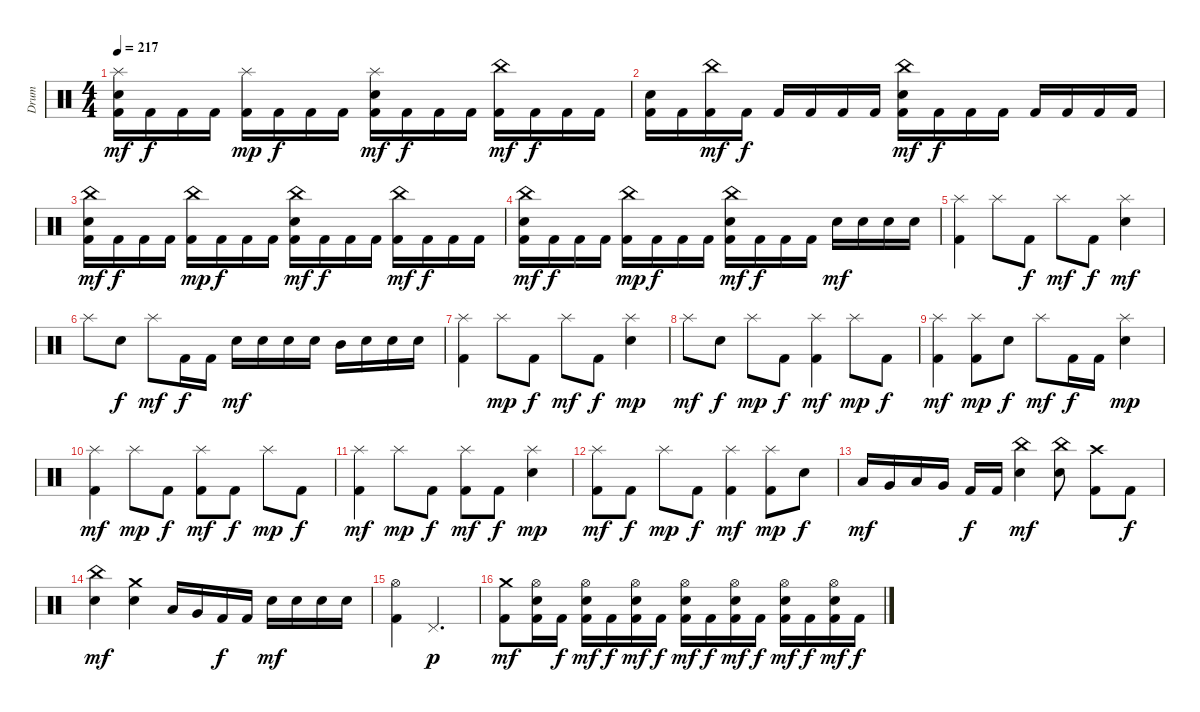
\track ("Drum" "Drum") {instrument percussion}
\staff {score}
\articulation defaults
\ts (4 4)
\tempo 217
\clef neutral
\ks c
("Splash (hit)" "Electric Snare (hit)" "Kick (hit) 2").16{dy mf} "Kick (hit) 2".16{dy f} "Kick (hit) 2".16 "Kick (hit) 2".16 ("Splash (hit)" "Kick (hit) 2").16{dy mp} "Kick (hit) 2".16{dy f} "Kick (hit) 2".16 "Kick (hit) 2".16 ("Splash (hit)" "Electric Snare (hit)" "Kick (hit) 2").16{dy mf} "Kick (hit) 2".16{dy f} "Kick (hit) 2".16 "Kick (hit) 2".16 ("China (hit)" "Kick (hit) 2").16{dy mf} "Kick (hit) 2".16{dy f} "Kick (hit) 2".16 "Kick (hit) 2".16 |
("Electric Snare (hit)" "Kick (hit) 2").16 "Kick (hit) 2".16 ("China (hit)" "Kick (hit) 2").16{dy mf} "Kick (hit) 2".16{dy f} "Kick (hit) 2".16 "Kick (hit) 2".16 "Kick (hit) 2".16 "Kick (hit) 2".16 ("China (hit)" "Electric Snare (hit)" "Kick (hit) 2").16{dy mf} "Kick (hit) 2".16{dy f} "Kick (hit) 2".16 "Kick (hit) 2".16 "Kick (hit) 2".16 "Kick (hit) 2".16 "Kick (hit) 2".16 "Kick (hit) 2".16 |
("China (hit)" "Electric Snare (hit)" "Kick (hit) 2").16{dy mf} "Kick (hit) 2".16{dy f} "Kick (hit) 2".16 "Kick (hit) 2".16 ("China (hit)" "Kick (hit) 2").16{dy mp} "Kick (hit) 2".16{dy f} "Kick (hit) 2".16 "Kick (hit) 2".16 ("China (hit)" "Electric Snare (hit)" "Kick (hit) 2").16{dy mf} "Kick (hit) 2".16{dy f} "Kick (hit) 2".16 "Kick (hit) 2".16 ("China (hit)" "Kick (hit) 2").16{dy mf} "Kick (hit) 2".16{dy f} "Kick (hit) 2".16 "Kick (hit) 2".16 |
("China (hit)" "Electric Snare (hit)" "Kick (hit) 2").16{dy mf} "Kick (hit) 2".16{dy f} "Kick (hit) 2".16 "Kick (hit) 2".16 ("China (hit)" "Kick (hit) 2").16{dy mp} "Kick (hit) 2".16{dy f} "Kick (hit) 2".16 "Kick (hit) 2".16 ("China (hit)" "Electric Snare (hit)" "Kick (hit) 2").16{dy mf} "Kick (hit) 2".16{dy f} "Kick (hit) 2".16 "Kick (hit) 2".16 "Electric Snare (hit)".16{dy mf} "Electric Snare (hit)".16 "Electric Snare (hit)".16 "Electric Snare (hit)".16 |
("Splash (hit)" "Kick (hit) 2").4 "Splash (hit)".8 "Kick (hit) 2".8{dy f} "Splash (hit)".8{dy mf} "Kick (hit) 2".8{dy f} ("Splash (hit)" "Electric Snare (hit)").4{dy mf} |
"Splash (hit)".8 "Electric Snare (hit)".8{dy f} "Splash (hit)".8{dy mf} "Kick (hit) 2".16{dy f} "Kick (hit) 2".16 "Electric Snare (hit)".16{dy mf} "Electric Snare (hit)".16 "Electric Snare (hit)".16 "Electric Snare (hit)".16 "Mid Tom (hit)".16 "Electric Snare (hit)".16 "Electric Snare (hit)".16 "Electric Snare (hit)".16 |
("Splash (hit)" "Kick (hit) 2").4 "Splash (hit)".8{dy mp} "Kick (hit) 2".8{dy f} "Splash (hit)".8{dy mf} "Kick (hit) 2".8{dy f} ("Splash (hit)" "Electric Snare (hit)").4{dy mp} |
"Splash (hit)".8{dy mf} "Electric Snare (hit)".8{dy f} "Splash (hit)".8{dy mp} "Kick (hit) 2".8{dy f} ("Splash (hit)" "Kick (hit) 2").4{dy mf} "Splash (hit)".8{dy mp} "Kick (hit) 2".8{dy f} |
("Splash (hit)" "Kick (hit) 2").4{dy mf} ("Splash (hit)" "Kick (hit) 2").8{dy mp} "Electric Snare (hit)".8{dy f} "Splash (hit)".8{dy mf} "Kick (hit) 2".16{dy f} "Kick (hit) 2".16 ("Splash (hit)" "Electric Snare (hit)").4{dy mp} |
("Splash (hit)" "Kick (hit) 2").4{dy mf} "Splash (hit)".8{dy mp} "Kick (hit) 2".8{dy f} ("Splash (hit)" "Kick (hit) 2").8{dy mf} "Kick (hit) 2".8{dy f} "Splash (hit)".8{dy mp} "Kick (hit) 2".8{dy f} |
("Splash (hit)" "Kick (hit) 2").4{dy mf} "Splash (hit)".8{dy mp} "Kick (hit) 2".8{dy f} ("Splash (hit)" "Kick (hit) 2").8{dy mf} "Kick (hit) 2".8{dy f} ("Splash (hit)" "Electric Snare (hit)").4{dy mp} |
("Splash (hit)" "Kick (hit) 2").8{dy mf} "Kick (hit) 2".8{dy f} "Splash (hit)".8{dy mp} "Kick (hit) 2".8{dy f} ("Splash (hit)" "Kick (hit) 2").4{dy mf} ("Splash (hit)" "Kick (hit) 2").8{dy mp} "Electric Snare (hit)".8{dy f} |
"Low Tom (hit)".16{dy mf} "Very Low Tom (hit)".16 "Low Tom (hit)".16 "Very Low Tom (hit)".16 "Kick (hit) 2".16{dy f} "Kick (hit) 2".16 ("China (hit)" "Electric Snare (hit)").4{dy mf} ("China (hit)" "Electric Snare (hit)").8 ("Crash high (hit)" "Kick (hit) 2").8 "Kick (hit) 2".8{dy f} |
("China (hit)" "Electric Snare (hit)").4{dy mf} ("Crash medium (hit)" "Electric Snare (hit)").4 "Low Tom (hit)".16 "Very Low Tom (hit)".16 "Kick (hit) 2".16{dy f} "Kick (hit) 2".16 "Electric Snare (hit)".16{dy mf} "Electric Snare (hit)".16 "Electric Snare (hit)".16 "Electric Snare (hit)".16 |
("Hi-Hat (open)" "Kick (hit) 2").4 "Pedal Hi-Hat (hit)".2{d dy p} |
("Crash medium (hit)" "Kick (hit) 2").8{dy mf} ("Hi-Hat (open)" "Electric Snare (hit)" "Kick (hit) 2").16 "Kick (hit) 2".16{dy f} ("Hi-Hat (open)" "Electric Snare (hit)" "Kick (hit) 2").16{dy mf} "Kick (hit) 2".16{dy f} ("Hi-Hat (open)" "Electric Snare (hit)" "Kick (hit) 2").16{dy mf} "Kick (hit) 2".16{dy f} ("Hi-Hat (open)" "Electric Snare (hit)" "Kick (hit) 2").16{dy mf} "Kick (hit) 2".16{dy f} ("Hi-Hat (open)" "Electric Snare (hit)" "Kick (hit) 2").16{dy mf} "Kick (hit) 2".16{dy f} ("Hi-Hat (open)" "Electric Snare (hit)" "Kick (hit) 2").16{dy mf} "Kick (hit) 2".16{dy f} ("Hi-Hat (open)" "Electric Snare (hit)" "Kick (hit) 2").16{dy mf} "Kick (hit) 2".16{dy f}
